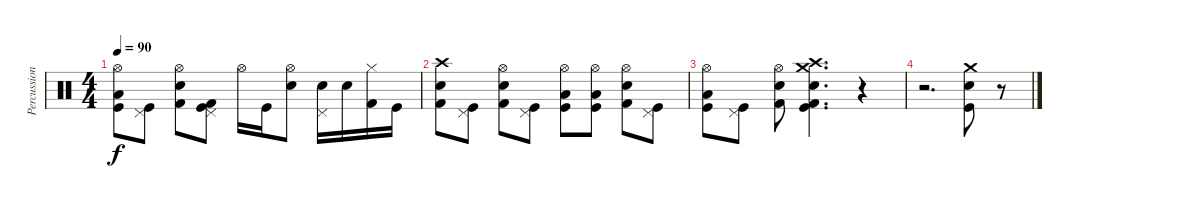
\track ("Percussion" "Percussion") {instrument percussion}
\staff {score}
\articulation defaults
\ts (4 4)
\tempo 90
\clef neutral
\ks c
("Kick (hit)" "Low Floor Tom (hit)" "Hi-Hat (open)").8{dy f} ("Kick (hit)" "Pedal Hi-Hat (hit)").8 ("Kick (hit) 2" "Snare (hit) 2" "Hi-Hat (open)").8 ("Kick (hit)" "Kick (hit) 2" "Pedal Hi-Hat (hit)").8 "Hi-Hat (open)".16 "Kick (hit)".16 ("Snare (hit) 2" "Hi-Hat (open)").8 ("Snare (hit) 2" "Pedal Hi-Hat (hit)").16 "Snare (hit) 2".16 ("Kick (hit) 2" "Hi-Hat (closed)").16 "Kick (hit)".16 |
("Kick (hit) 2" "Snare (hit) 2" "Crash high (hit)").8 ("Kick (hit)" "Pedal Hi-Hat (hit)").8 ("Kick (hit) 2" "Electric Snare (hit)" "Hi-Hat (open)").8 ("Kick (hit)" "Pedal Hi-Hat (hit)").8 ("Kick (hit)" "Low Floor Tom (hit)" "Hi-Hat (open)").8 ("Kick (hit)" "Low Floor Tom (hit)" "Hi-Hat (open)").8 ("Kick (hit) 2" "Electric Snare (hit)" "Hi-Hat (open)").8 ("Kick (hit)" "Pedal Hi-Hat (hit)").8 |
("Kick (hit)" "Low Floor Tom (hit)" "Hi-Hat (open)").8 ("Kick (hit)" "Pedal Hi-Hat (hit)").8 ("Kick (hit) 2" "Snare (hit) 2" "Hi-Hat (open)").8 ("Kick (hit)" "Kick (hit) 2" "Electric Snare (hit)" "Crash high (hit)" "Crash medium (hit)").4{d} r.4 |
r.2{d} ("Kick (hit)" "Electric Snare (hit)" "Crash medium (hit)").8 r.8
